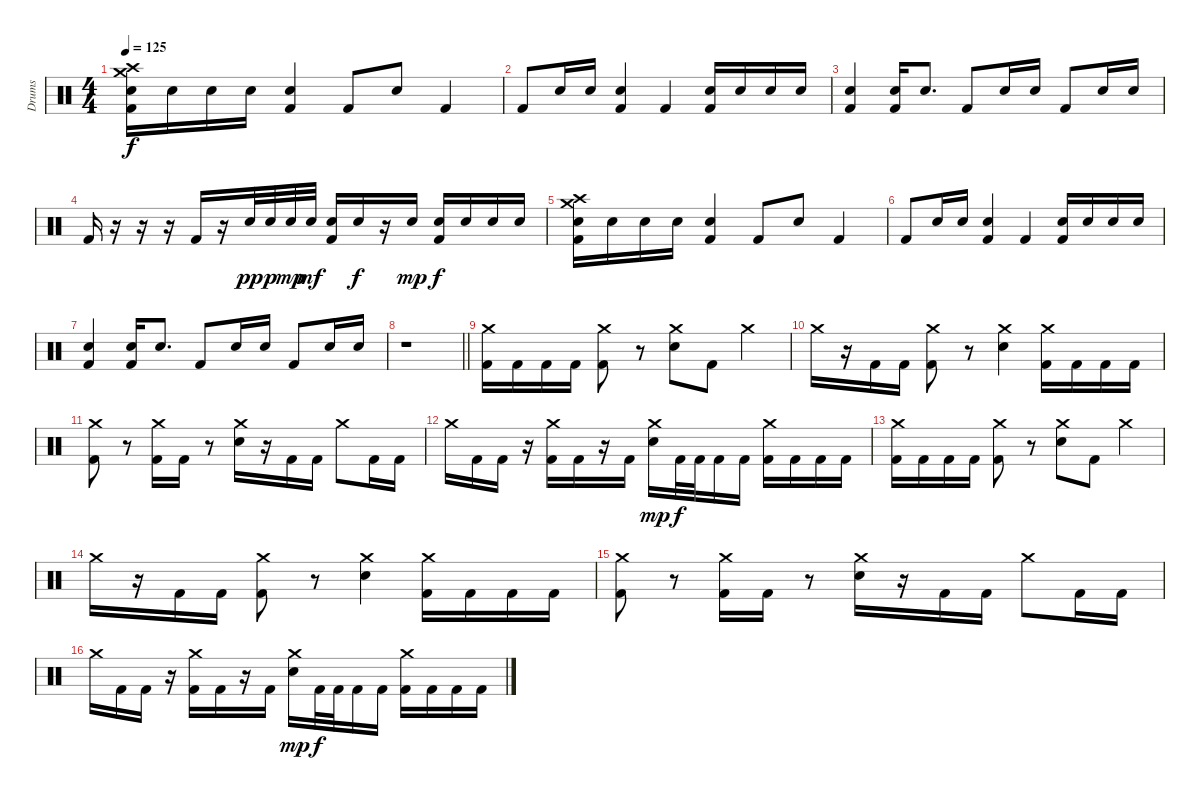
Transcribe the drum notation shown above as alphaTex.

\track ("Drums" "Drums") {instrument percussion}
\staff {score}
\articulation defaults
\ts (4 4)
\tempo 125
\clef neutral
\ks c
("Crash medium (hit)" "Crash high (hit)" "Snare (hit) 2" "Kick (hit) 2").16{dy f} "Snare (hit) 2".16 "Snare (hit) 2".16 "Snare (hit) 2".16 ("Snare (hit) 2" "Kick (hit) 2").4 "Kick (hit) 2".8 "Snare (hit) 2".8 "Kick (hit) 2".4 |
"Kick (hit) 2".8 "Snare (hit) 2".16 "Snare (hit) 2".16 ("Snare (hit) 2" "Kick (hit) 2").4 "Kick (hit) 2".4 ("Snare (hit) 2" "Kick (hit) 2").16 "Snare (hit) 2".16 "Snare (hit) 2".16 "Snare (hit) 2".16 |
("Snare (hit) 2" "Kick (hit) 2").4 ("Snare (hit) 2" "Kick (hit) 2").16 "Snare (hit) 2".8{d} "Kick (hit) 2".8 "Snare (hit) 2".16 "Snare (hit) 2".16 "Kick (hit) 2".8 "Snare (hit) 2".16 "Snare (hit) 2".16 |
"Kick (hit) 2".16 r.16 r.16 r.16 "Kick (hit) 2".16 r.16 "Snare (hit) 2".32{dy pp} "Snare (hit) 2".32{dy p} "Snare (hit) 2".32{dy mp} "Snare (hit) 2".32{dy mf} ("Snare (hit) 2" "Kick (hit) 2").16 "Snare (hit) 2".16{dy f} r.16 "Snare (hit) 2".16{dy mp} ("Snare (hit) 2" "Kick (hit) 2").16{dy f} "Snare (hit) 2".16 "Snare (hit) 2".16 "Snare (hit) 2".16 |
("Crash medium (hit)" "Crash high (hit)" "Snare (hit) 2" "Kick (hit) 2").16 "Snare (hit) 2".16 "Snare (hit) 2".16 "Snare (hit) 2".16 ("Snare (hit) 2" "Kick (hit) 2").4 "Kick (hit) 2".8 "Snare (hit) 2".8 "Kick (hit) 2".4 |
"Kick (hit) 2".8 "Snare (hit) 2".16 "Snare (hit) 2".16 ("Snare (hit) 2" "Kick (hit) 2").4 "Kick (hit) 2".4 ("Snare (hit) 2" "Kick (hit) 2").16 "Snare (hit) 2".16 "Snare (hit) 2".16 "Snare (hit) 2".16 |
("Snare (hit) 2" "Kick (hit) 2").4 ("Snare (hit) 2" "Kick (hit) 2").16 "Snare (hit) 2".8{d} "Kick (hit) 2".8 "Snare (hit) 2".16 "Snare (hit) 2".16 "Kick (hit) 2".8 "Snare (hit) 2".16 "Snare (hit) 2".16 |
\barLineRight lightlight
r.1 |
\section ("" "")
("Crash medium (hit)" "Kick (hit) 2").16 "Kick (hit) 2".16 "Kick (hit) 2".16 "Kick (hit) 2".16 ("Crash medium (hit)" "Kick (hit) 2").8 r.8 ("Crash medium (hit)" "Snare (hit) 2").8 "Kick (hit) 2".8 "Crash medium (hit)".4 |
"Crash medium (hit)".16 r.16 "Kick (hit) 2".16 "Kick (hit) 2".16 ("Crash medium (hit)" "Kick (hit) 2").8 r.8 ("Crash medium (hit)" "Snare (hit) 2").4 ("Crash medium (hit)" "Kick (hit) 2").16 "Kick (hit) 2".16 "Kick (hit) 2".16 "Kick (hit) 2".16 |
("Crash medium (hit)" "Kick (hit) 2").8 r.8 ("Crash medium (hit)" "Kick (hit) 2").16 "Kick (hit) 2".16 r.8 ("Crash medium (hit)" "Snare (hit) 2").16 r.16 "Kick (hit) 2".16 "Kick (hit) 2".16 "Crash medium (hit)".8 "Kick (hit) 2".16 "Kick (hit) 2".16 |
"Crash medium (hit)".16 "Kick (hit) 2".16 "Kick (hit) 2".16 r.16 ("Crash medium (hit)" "Kick (hit) 2").16 "Kick (hit) 2".16 r.16 "Kick (hit) 2".16 ("Crash medium (hit)" "Snare (hit) 2").16{dy mp} "Kick (hit) 2".32{dy f} "Kick (hit) 2".32 "Kick (hit) 2".16 "Kick (hit) 2".16 ("Crash medium (hit)" "Kick (hit) 2").16 "Kick (hit) 2".16 "Kick (hit) 2".16 "Kick (hit) 2".16 |
("Crash medium (hit)" "Kick (hit) 2").16 "Kick (hit) 2".16 "Kick (hit) 2".16 "Kick (hit) 2".16 ("Crash medium (hit)" "Kick (hit) 2").8 r.8 ("Crash medium (hit)" "Snare (hit) 2").8 "Kick (hit) 2".8 "Crash medium (hit)".4 |
"Crash medium (hit)".16 r.16 "Kick (hit) 2".16 "Kick (hit) 2".16 ("Crash medium (hit)" "Kick (hit) 2").8 r.8 ("Crash medium (hit)" "Snare (hit) 2").4 ("Crash medium (hit)" "Kick (hit) 2").16 "Kick (hit) 2".16 "Kick (hit) 2".16 "Kick (hit) 2".16 |
("Crash medium (hit)" "Kick (hit) 2").8 r.8 ("Crash medium (hit)" "Kick (hit) 2").16 "Kick (hit) 2".16 r.8 ("Crash medium (hit)" "Snare (hit) 2").16 r.16 "Kick (hit) 2".16 "Kick (hit) 2".16 "Crash medium (hit)".8 "Kick (hit) 2".16 "Kick (hit) 2".16 |
"Crash medium (hit)".16 "Kick (hit) 2".16 "Kick (hit) 2".16 r.16 ("Crash medium (hit)" "Kick (hit) 2").16 "Kick (hit) 2".16 r.16 "Kick (hit) 2".16 ("Crash medium (hit)" "Snare (hit) 2").16{dy mp} "Kick (hit) 2".32{dy f} "Kick (hit) 2".32 "Kick (hit) 2".16 "Kick (hit) 2".16 ("Crash medium (hit)" "Kick (hit) 2").16 "Kick (hit) 2".16 "Kick (hit) 2".16 "Kick (hit) 2".16
